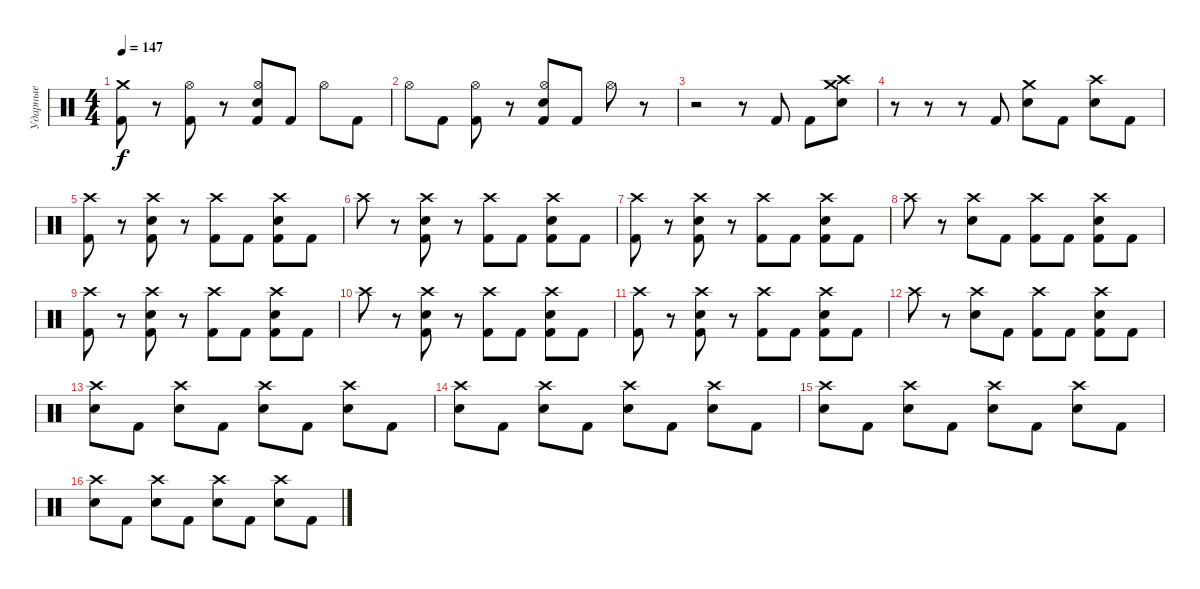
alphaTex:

\track ("Ударные" "Ударные") {instrument percussion}
\staff {score}
\articulation defaults
\ts (4 4)
\tempo 147
\clef neutral
\ks c
("Crash medium (hit)" "Kick (hit) 2").8{dy f} r.8 ("Hi-Hat (open)" "Kick (hit) 2").8 r.8 ("Hi-Hat (open)" "Electric Snare (hit)" "Kick (hit) 2").8 "Kick (hit) 2".8 "Hi-Hat (open)".8 "Kick (hit) 2".8 |
"Hi-Hat (open)".8 "Kick (hit) 2".8 ("Hi-Hat (open)" "Kick (hit) 2").8 r.8 ("Hi-Hat (open)" "Electric Snare (hit)" "Kick (hit) 2").8 "Kick (hit) 2".8 "Hi-Hat (open)".8 r.8 |
r.2 r.8 "Kick (hit) 2".8 "Kick (hit) 2".8 ("Crash high (hit)" "Crash medium (hit)" "Electric Snare (hit)").8 |
r.8 r.8 r.8 "Kick (hit) 2".8 ("Crash medium (hit)" "Electric Snare (hit)").8 "Kick (hit) 2".8 ("Crash high (hit)" "Electric Snare (hit)").8 "Kick (hit) 2".8 |
("Crash high (hit)" "Kick (hit) 2").8 r.8 ("Crash high (hit)" "Electric Snare (hit)" "Kick (hit) 2").8 r.8 ("Crash high (hit)" "Kick (hit) 2").8 "Kick (hit) 2".8 ("Crash high (hit)" "Electric Snare (hit)" "Kick (hit) 2").8 "Kick (hit) 2".8 |
"Crash high (hit)".8 r.8 ("Crash high (hit)" "Electric Snare (hit)" "Kick (hit) 2").8 r.8 ("Crash high (hit)" "Kick (hit) 2").8 "Kick (hit) 2".8 ("Crash high (hit)" "Electric Snare (hit)" "Kick (hit) 2").8 "Kick (hit) 2".8 |
("Crash high (hit)" "Kick (hit) 2").8 r.8 ("Crash high (hit)" "Electric Snare (hit)" "Kick (hit) 2").8 r.8 ("Crash high (hit)" "Kick (hit) 2").8 "Kick (hit) 2".8 ("Crash high (hit)" "Electric Snare (hit)" "Kick (hit) 2").8 "Kick (hit) 2".8 |
"Crash high (hit)".8 r.8 ("Crash high (hit)" "Electric Snare (hit)").8 "Kick (hit) 2".8 ("Crash high (hit)" "Kick (hit) 2").8 "Kick (hit) 2".8 ("Crash high (hit)" "Electric Snare (hit)" "Kick (hit) 2").8 "Kick (hit) 2".8 |
("Crash high (hit)" "Kick (hit) 2").8 r.8 ("Crash high (hit)" "Electric Snare (hit)" "Kick (hit) 2").8 r.8 ("Crash high (hit)" "Kick (hit) 2").8 "Kick (hit) 2".8 ("Crash high (hit)" "Electric Snare (hit)" "Kick (hit) 2").8 "Kick (hit) 2".8 |
"Crash high (hit)".8 r.8 ("Crash high (hit)" "Electric Snare (hit)" "Kick (hit) 2").8 r.8 ("Crash high (hit)" "Kick (hit) 2").8 "Kick (hit) 2".8 ("Crash high (hit)" "Electric Snare (hit)" "Kick (hit) 2").8 "Kick (hit) 2".8 |
("Crash high (hit)" "Kick (hit) 2").8 r.8 ("Crash high (hit)" "Electric Snare (hit)" "Kick (hit) 2").8 r.8 ("Crash high (hit)" "Kick (hit) 2").8 "Kick (hit) 2".8 ("Crash high (hit)" "Electric Snare (hit)" "Kick (hit) 2").8 "Kick (hit) 2".8 |
"Crash high (hit)".8 r.8 ("Crash high (hit)" "Electric Snare (hit)").8 "Kick (hit) 2".8 ("Crash high (hit)" "Kick (hit) 2").8 "Kick (hit) 2".8 ("Crash high (hit)" "Electric Snare (hit)" "Kick (hit) 2").8 "Kick (hit) 2".8 |
("Crash high (hit)" "Electric Snare (hit)").8 "Kick (hit) 2".8 ("Crash high (hit)" "Electric Snare (hit)").8 "Kick (hit) 2".8 ("Crash high (hit)" "Electric Snare (hit)").8 "Kick (hit) 2".8 ("Crash high (hit)" "Electric Snare (hit)").8 "Kick (hit) 2".8 |
("Crash high (hit)" "Electric Snare (hit)").8 "Kick (hit) 2".8 ("Crash high (hit)" "Electric Snare (hit)").8 "Kick (hit) 2".8 ("Crash high (hit)" "Electric Snare (hit)").8 "Kick (hit) 2".8 ("Crash high (hit)" "Electric Snare (hit)").8 "Kick (hit) 2".8 |
("Crash high (hit)" "Electric Snare (hit)").8 "Kick (hit) 2".8 ("Crash high (hit)" "Electric Snare (hit)").8 "Kick (hit) 2".8 ("Crash high (hit)" "Electric Snare (hit)").8 "Kick (hit) 2".8 ("Crash high (hit)" "Electric Snare (hit)").8 "Kick (hit) 2".8 |
("Crash high (hit)" "Electric Snare (hit)").8 "Kick (hit) 2".8 ("Crash high (hit)" "Electric Snare (hit)").8 "Kick (hit) 2".8 ("Crash high (hit)" "Electric Snare (hit)").8 "Kick (hit) 2".8 ("Crash high (hit)" "Electric Snare (hit)").8 "Kick (hit) 2".8
